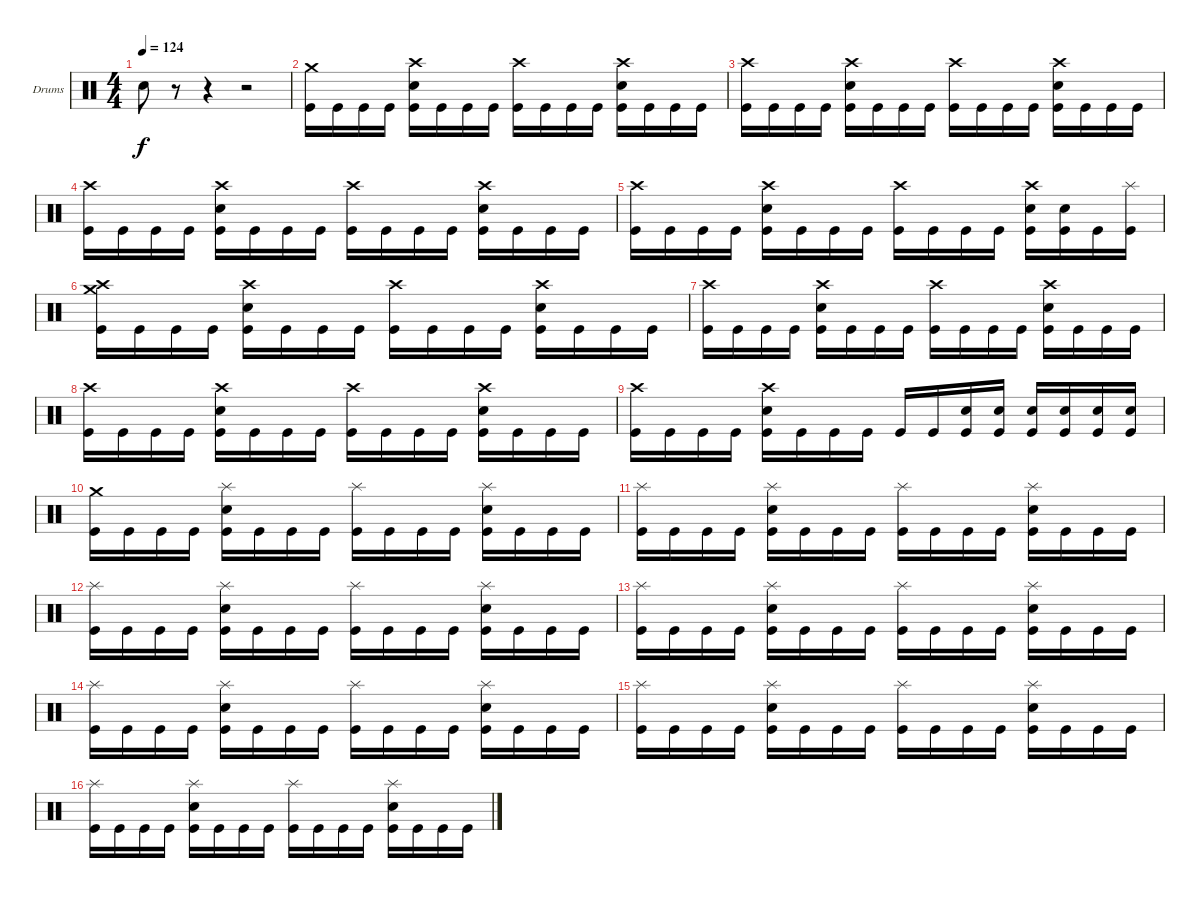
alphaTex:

\defaultSystemsLayout 4
\bracketExtendMode groupsimilarinstruments
\firstSystemTrackNameOrientation horizontal
\otherSystemsTrackNameOrientation horizontal
\track ("Drumkit" "Drums") {instrument percussion}
\staff {score}
\articulation defaults
\ts (4 4)
\tempo 124
\clef neutral
\ks c "Snare (hit) 2".8{dy f}
r.8 r.4 r.2 |
("Crash medium (hit)" "Kick (hit)").16 "Kick (hit)".16 "Kick (hit)".16 "Kick (hit)".16 ("Crash high (hit)" "Snare (hit) 2" "Kick (hit)").16 "Kick (hit)".16 "Kick (hit)".16 "Kick (hit)".16 ("Crash high (hit)" "Kick (hit)").16 "Kick (hit)".16 "Kick (hit)".16 "Kick (hit)".16 ("Crash high (hit)" "Snare (hit) 2" "Kick (hit)").16 "Kick (hit)".16 "Kick (hit)".16 "Kick (hit)".16 |
("Crash high (hit)" "Kick (hit)").16 "Kick (hit)".16 "Kick (hit)".16 "Kick (hit)".16 ("Crash high (hit)" "Snare (hit) 2" "Kick (hit)").16 "Kick (hit)".16 "Kick (hit)".16 "Kick (hit)".16 ("Crash high (hit)" "Kick (hit)").16 "Kick (hit)".16 "Kick (hit)".16 "Kick (hit)".16 ("Crash high (hit)" "Snare (hit) 2" "Kick (hit)").16 "Kick (hit)".16 "Kick (hit)".16 "Kick (hit)".16 |
("Crash high (hit)" "Kick (hit)").16 "Kick (hit)".16 "Kick (hit)".16 "Kick (hit)".16 ("Crash high (hit)" "Snare (hit) 2" "Kick (hit)").16 "Kick (hit)".16 "Kick (hit)".16 "Kick (hit)".16 ("Crash high (hit)" "Kick (hit)").16 "Kick (hit)".16 "Kick (hit)".16 "Kick (hit)".16 ("Crash high (hit)" "Snare (hit) 2" "Kick (hit)").16 "Kick (hit)".16 "Kick (hit)".16 "Kick (hit)".16 |
("Crash high (hit)" "Kick (hit)").16 "Kick (hit)".16 "Kick (hit)".16 "Kick (hit)".16 ("Crash high (hit)" "Snare (hit) 2" "Kick (hit)").16 "Kick (hit)".16 "Kick (hit)".16 "Kick (hit)".16 ("Crash high (hit)" "Kick (hit)").16 "Kick (hit)".16 "Kick (hit)".16 "Kick (hit)".16 ("Crash high (hit)" "Snare (hit) 2" "Kick (hit)").16 ("Snare (hit) 2" "Kick (hit)").16 "Kick (hit)".16 ("Splash (hit)" "Kick (hit)").16 |
("Crash high (hit)" "Crash medium (hit)" "Kick (hit)").16 "Kick (hit)".16 "Kick (hit)".16 "Kick (hit)".16 ("Crash high (hit)" "Snare (hit) 2" "Kick (hit)").16 "Kick (hit)".16 "Kick (hit)".16 "Kick (hit)".16 ("Crash high (hit)" "Kick (hit)").16 "Kick (hit)".16 "Kick (hit)".16 "Kick (hit)".16 ("Crash high (hit)" "Snare (hit) 2" "Kick (hit)").16 "Kick (hit)".16 "Kick (hit)".16 "Kick (hit)".16 |
("Crash high (hit)" "Kick (hit)").16 "Kick (hit)".16 "Kick (hit)".16 "Kick (hit)".16 ("Crash high (hit)" "Snare (hit) 2" "Kick (hit)").16 "Kick (hit)".16 "Kick (hit)".16 "Kick (hit)".16 ("Crash high (hit)" "Kick (hit)").16 "Kick (hit)".16 "Kick (hit)".16 "Kick (hit)".16 ("Crash high (hit)" "Snare (hit) 2" "Kick (hit)").16 "Kick (hit)".16 "Kick (hit)".16 "Kick (hit)".16 |
("Crash high (hit)" "Kick (hit)").16 "Kick (hit)".16 "Kick (hit)".16 "Kick (hit)".16 ("Crash high (hit)" "Snare (hit) 2" "Kick (hit)").16 "Kick (hit)".16 "Kick (hit)".16 "Kick (hit)".16 ("Crash high (hit)" "Kick (hit)").16 "Kick (hit)".16 "Kick (hit)".16 "Kick (hit)".16 ("Crash high (hit)" "Snare (hit) 2" "Kick (hit)").16 "Kick (hit)".16 "Kick (hit)".16 "Kick (hit)".16 |
("Crash high (hit)" "Kick (hit)").16 "Kick (hit)".16 "Kick (hit)".16 "Kick (hit)".16 ("Crash high (hit)" "Snare (hit) 2" "Kick (hit)").16 "Kick (hit)".16 "Kick (hit)".16 "Kick (hit)".16 "Kick (hit)".16 "Kick (hit)".16 ("Snare (hit) 2" "Kick (hit)").16 ("Snare (hit) 2" "Kick (hit)").16 ("Snare (hit) 2" "Kick (hit)").16 ("Snare (hit) 2" "Kick (hit)").16 ("Snare (hit) 2" "Kick (hit)").16 ("Snare (hit) 2" "Kick (hit)").16 |
("Crash medium (hit)" "Kick (hit)").16 "Kick (hit)".16 "Kick (hit)".16 "Kick (hit)".16 ("Splash (hit)" "Snare (hit) 2" "Kick (hit)").16 "Kick (hit)".16 "Kick (hit)".16 "Kick (hit)".16 ("Splash (hit)" "Kick (hit)").16 "Kick (hit)".16 "Kick (hit)".16 "Kick (hit)".16 ("Splash (hit)" "Snare (hit) 2" "Kick (hit)").16 "Kick (hit)".16 "Kick (hit)".16 "Kick (hit)".16 |
("Splash (hit)" "Kick (hit)").16 "Kick (hit)".16 "Kick (hit)".16 "Kick (hit)".16 ("Splash (hit)" "Snare (hit) 2" "Kick (hit)").16 "Kick (hit)".16 "Kick (hit)".16 "Kick (hit)".16 ("Splash (hit)" "Kick (hit)").16 "Kick (hit)".16 "Kick (hit)".16 "Kick (hit)".16 ("Splash (hit)" "Snare (hit) 2" "Kick (hit)").16 "Kick (hit)".16 "Kick (hit)".16 "Kick (hit)".16 |
("Splash (hit)" "Kick (hit)").16 "Kick (hit)".16 "Kick (hit)".16 "Kick (hit)".16 ("Splash (hit)" "Snare (hit) 2" "Kick (hit)").16 "Kick (hit)".16 "Kick (hit)".16 "Kick (hit)".16 ("Splash (hit)" "Kick (hit)").16 "Kick (hit)".16 "Kick (hit)".16 "Kick (hit)".16 ("Splash (hit)" "Snare (hit) 2" "Kick (hit)").16 "Kick (hit)".16 "Kick (hit)".16 "Kick (hit)".16 |
("Splash (hit)" "Kick (hit)").16 "Kick (hit)".16 "Kick (hit)".16 "Kick (hit)".16 ("Splash (hit)" "Snare (hit) 2" "Kick (hit)").16 "Kick (hit)".16 "Kick (hit)".16 "Kick (hit)".16 ("Splash (hit)" "Kick (hit)").16 "Kick (hit)".16 "Kick (hit)".16 "Kick (hit)".16 ("Splash (hit)" "Snare (hit) 2" "Kick (hit)").16 "Kick (hit)".16 "Kick (hit)".16 "Kick (hit)".16 |
("Splash (hit)" "Kick (hit)").16 "Kick (hit)".16 "Kick (hit)".16 "Kick (hit)".16 ("Splash (hit)" "Snare (hit) 2" "Kick (hit)").16 "Kick (hit)".16 "Kick (hit)".16 "Kick (hit)".16 ("Splash (hit)" "Kick (hit)").16 "Kick (hit)".16 "Kick (hit)".16 "Kick (hit)".16 ("Splash (hit)" "Snare (hit) 2" "Kick (hit)").16 "Kick (hit)".16 "Kick (hit)".16 "Kick (hit)".16 |
("Splash (hit)" "Kick (hit)").16 "Kick (hit)".16 "Kick (hit)".16 "Kick (hit)".16 ("Splash (hit)" "Snare (hit) 2" "Kick (hit)").16 "Kick (hit)".16 "Kick (hit)".16 "Kick (hit)".16 ("Splash (hit)" "Kick (hit)").16 "Kick (hit)".16 "Kick (hit)".16 "Kick (hit)".16 ("Splash (hit)" "Snare (hit) 2" "Kick (hit)").16 "Kick (hit)".16 "Kick (hit)".16 "Kick (hit)".16 |
("Splash (hit)" "Kick (hit)").16 "Kick (hit)".16 "Kick (hit)".16 "Kick (hit)".16 ("Splash (hit)" "Snare (hit) 2" "Kick (hit)").16 "Kick (hit)".16 "Kick (hit)".16 "Kick (hit)".16 ("Splash (hit)" "Kick (hit)").16 "Kick (hit)".16 "Kick (hit)".16 "Kick (hit)".16 ("Splash (hit)" "Snare (hit) 2" "Kick (hit)").16 "Kick (hit)".16 "Kick (hit)".16 "Kick (hit)".16
